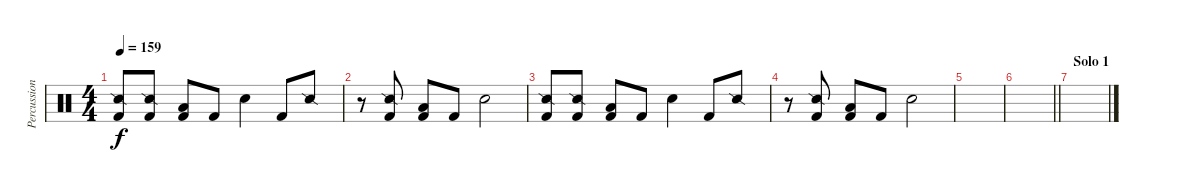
\track ("Percussion" "Percussion") {instrument percussion}
\staff {score}
\articulation defaults
\ts (4 4)
\tempo 159
\clef neutral
\ks c
("Kick (hit) 2" "Snare (side stick) 2").8{dy f} ("Kick (hit) 2" "Snare (side stick) 2").8 ("Kick (hit) 2" "Low Tom (hit)").8 "Kick (hit) 2".8 "Snare (hit) 2".4 "Kick (hit) 2".8 "Snare (side stick) 2".8 |
r.8 ("Kick (hit) 2" "Snare (side stick) 2").8 ("Kick (hit) 2" "Low Tom (hit)").8 "Kick (hit) 2".8 "Snare (hit) 2".2 |
("Kick (hit) 2" "Snare (side stick) 2").8 ("Kick (hit) 2" "Snare (side stick) 2").8 ("Kick (hit) 2" "Low Tom (hit)").8 "Kick (hit) 2".8 "Snare (hit) 2".4 "Kick (hit) 2".8 "Snare (side stick) 2".8 |
r.8 ("Kick (hit) 2" "Snare (side stick) 2").8 ("Kick (hit) 2" "Low Tom (hit)").8 "Kick (hit) 2".8 "Snare (hit) 2".2 |
|
\barLineRight lightlight
|
\section ("" "Solo 1")
